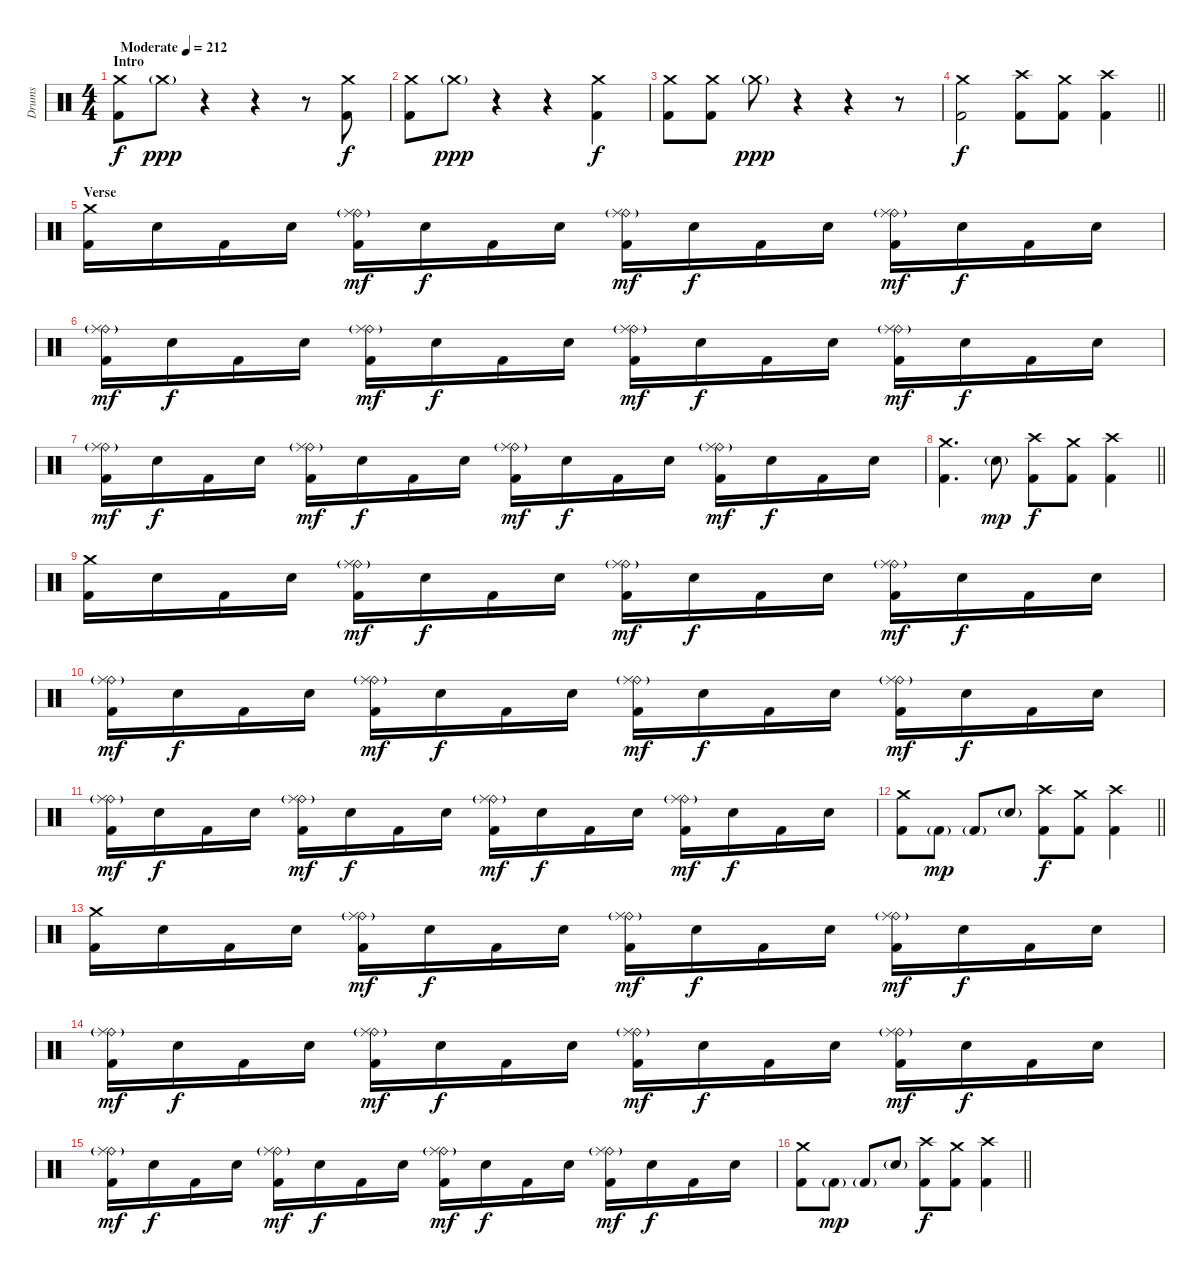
\track ("Drums" "Drums") {instrument percussion}
\staff {score}
\articulation defaults
\ts (4 4)
\section ("" "Intro")
\tempo (212 "Moderate")
\clef neutral
\ks c
("Crash medium (hit)" "Kick (hit) 2").8{dy f} "Crash medium (hit)"{g}.8{dy ppp} r.4 r.4 r.8 ("Crash medium (hit)" "Kick (hit) 2").8{dy f} |
("Crash medium (hit)" "Kick (hit) 2").8 "Crash medium (hit)"{g}.8{dy ppp} r.4 r.4 ("Crash medium (hit)" "Kick (hit) 2").4{dy f} |
("Crash medium (hit)" "Kick (hit) 2").8 ("Crash medium (hit)" "Kick (hit) 2").8 "Crash medium (hit)"{g}.8{dy ppp} r.4 r.4 r.8 |
\barLineRight lightlight
("Crash medium (hit)" "Kick (hit) 2").2{dy f} ("Crash high (hit)" "Kick (hit) 2").8 ("Crash medium (hit)" "Kick (hit) 2").8 ("Crash high (hit)" "Kick (hit) 2").4 |
\section ("" "Verse")
("Crash medium (hit)" "Kick (hit) 2").16 "Electric Snare (hit)".16 "Kick (hit) 2".16 "Electric Snare (hit)".16 ("Ride (bell)"{g} "Ride (middle)" "Kick (hit) 2").16{dy mf} "Electric Snare (hit)".16{dy f} "Kick (hit) 2".16 "Electric Snare (hit)".16 ("Ride (bell)"{g} "Ride (middle)" "Kick (hit) 2").16{dy mf} "Electric Snare (hit)".16{dy f} "Kick (hit) 2".16 "Electric Snare (hit)".16 ("Ride (bell)"{g} "Ride (middle)" "Kick (hit) 2").16{dy mf} "Electric Snare (hit)".16{dy f} "Kick (hit) 2".16 "Electric Snare (hit)".16 |
("Ride (bell)"{g} "Ride (middle)" "Kick (hit) 2").16{dy mf} "Electric Snare (hit)".16{dy f} "Kick (hit) 2".16 "Electric Snare (hit)".16 ("Ride (bell)"{g} "Ride (middle)" "Kick (hit) 2").16{dy mf} "Electric Snare (hit)".16{dy f} "Kick (hit) 2".16 "Electric Snare (hit)".16 ("Ride (bell)"{g} "Ride (middle)" "Kick (hit) 2").16{dy mf} "Electric Snare (hit)".16{dy f} "Kick (hit) 2".16 "Electric Snare (hit)".16 ("Ride (bell)"{g} "Ride (middle)" "Kick (hit) 2").16{dy mf} "Electric Snare (hit)".16{dy f} "Kick (hit) 2".16 "Electric Snare (hit)".16 |
("Ride (bell)"{g} "Ride (middle)" "Kick (hit) 2").16{dy mf} "Electric Snare (hit)".16{dy f} "Kick (hit) 2".16 "Electric Snare (hit)".16 ("Ride (bell)"{g} "Ride (middle)" "Kick (hit) 2").16{dy mf} "Electric Snare (hit)".16{dy f} "Kick (hit) 2".16 "Electric Snare (hit)".16 ("Ride (bell)"{g} "Ride (middle)" "Kick (hit) 2").16{dy mf} "Electric Snare (hit)".16{dy f} "Kick (hit) 2".16 "Electric Snare (hit)".16 ("Ride (bell)"{g} "Ride (middle)" "Kick (hit) 2").16{dy mf} "Electric Snare (hit)".16{dy f} "Kick (hit) 2".16 "Electric Snare (hit)".16 |
\barLineRight lightlight
("Crash medium (hit)" "Kick (hit) 2").4{d} "Electric Snare (hit)"{g}.8{dy mp} ("Crash high (hit)" "Kick (hit) 2").8{dy f} ("Crash medium (hit)" "Kick (hit) 2").8 ("Crash high (hit)" "Kick (hit) 2").4 |
("Crash medium (hit)" "Kick (hit) 2").16 "Electric Snare (hit)".16 "Kick (hit) 2".16 "Electric Snare (hit)".16 ("Ride (bell)"{g} "Ride (middle)" "Kick (hit) 2").16{dy mf} "Electric Snare (hit)".16{dy f} "Kick (hit) 2".16 "Electric Snare (hit)".16 ("Ride (bell)"{g} "Ride (middle)" "Kick (hit) 2").16{dy mf} "Electric Snare (hit)".16{dy f} "Kick (hit) 2".16 "Electric Snare (hit)".16 ("Ride (bell)"{g} "Ride (middle)" "Kick (hit) 2").16{dy mf} "Electric Snare (hit)".16{dy f} "Kick (hit) 2".16 "Electric Snare (hit)".16 |
("Ride (bell)"{g} "Ride (middle)" "Kick (hit) 2").16{dy mf} "Electric Snare (hit)".16{dy f} "Kick (hit) 2".16 "Electric Snare (hit)".16 ("Ride (bell)"{g} "Ride (middle)" "Kick (hit) 2").16{dy mf} "Electric Snare (hit)".16{dy f} "Kick (hit) 2".16 "Electric Snare (hit)".16 ("Ride (bell)"{g} "Ride (middle)" "Kick (hit) 2").16{dy mf} "Electric Snare (hit)".16{dy f} "Kick (hit) 2".16 "Electric Snare (hit)".16 ("Ride (bell)"{g} "Ride (middle)" "Kick (hit) 2").16{dy mf} "Electric Snare (hit)".16{dy f} "Kick (hit) 2".16 "Electric Snare (hit)".16 |
("Ride (bell)"{g} "Ride (middle)" "Kick (hit) 2").16{dy mf} "Electric Snare (hit)".16{dy f} "Kick (hit) 2".16 "Electric Snare (hit)".16 ("Ride (bell)"{g} "Ride (middle)" "Kick (hit) 2").16{dy mf} "Electric Snare (hit)".16{dy f} "Kick (hit) 2".16 "Electric Snare (hit)".16 ("Ride (bell)"{g} "Ride (middle)" "Kick (hit) 2").16{dy mf} "Electric Snare (hit)".16{dy f} "Kick (hit) 2".16 "Electric Snare (hit)".16 ("Ride (bell)"{g} "Ride (middle)" "Kick (hit) 2").16{dy mf} "Electric Snare (hit)".16{dy f} "Kick (hit) 2".16 "Electric Snare (hit)".16 |
\barLineRight lightlight
("Crash medium (hit)" "Kick (hit) 2").8 "Kick (hit) 2"{g}.8{dy mp} "Kick (hit) 2"{g}.8 "Electric Snare (hit)"{g}.8 ("Crash high (hit)" "Kick (hit) 2").8{dy f} ("Crash medium (hit)" "Kick (hit) 2").8 ("Crash high (hit)" "Kick (hit) 2").4 |
("Crash medium (hit)" "Kick (hit) 2").16 "Electric Snare (hit)".16 "Kick (hit) 2".16 "Electric Snare (hit)".16 ("Ride (bell)"{g} "Ride (middle)" "Kick (hit) 2").16{dy mf} "Electric Snare (hit)".16{dy f} "Kick (hit) 2".16 "Electric Snare (hit)".16 ("Ride (bell)"{g} "Ride (middle)" "Kick (hit) 2").16{dy mf} "Electric Snare (hit)".16{dy f} "Kick (hit) 2".16 "Electric Snare (hit)".16 ("Ride (bell)"{g} "Ride (middle)" "Kick (hit) 2").16{dy mf} "Electric Snare (hit)".16{dy f} "Kick (hit) 2".16 "Electric Snare (hit)".16 |
("Ride (bell)"{g} "Ride (middle)" "Kick (hit) 2").16{dy mf} "Electric Snare (hit)".16{dy f} "Kick (hit) 2".16 "Electric Snare (hit)".16 ("Ride (bell)"{g} "Ride (middle)" "Kick (hit) 2").16{dy mf} "Electric Snare (hit)".16{dy f} "Kick (hit) 2".16 "Electric Snare (hit)".16 ("Ride (bell)"{g} "Ride (middle)" "Kick (hit) 2").16{dy mf} "Electric Snare (hit)".16{dy f} "Kick (hit) 2".16 "Electric Snare (hit)".16 ("Ride (bell)"{g} "Ride (middle)" "Kick (hit) 2").16{dy mf} "Electric Snare (hit)".16{dy f} "Kick (hit) 2".16 "Electric Snare (hit)".16 |
("Ride (bell)"{g} "Ride (middle)" "Kick (hit) 2").16{dy mf} "Electric Snare (hit)".16{dy f} "Kick (hit) 2".16 "Electric Snare (hit)".16 ("Ride (bell)"{g} "Ride (middle)" "Kick (hit) 2").16{dy mf} "Electric Snare (hit)".16{dy f} "Kick (hit) 2".16 "Electric Snare (hit)".16 ("Ride (bell)"{g} "Ride (middle)" "Kick (hit) 2").16{dy mf} "Electric Snare (hit)".16{dy f} "Kick (hit) 2".16 "Electric Snare (hit)".16 ("Ride (bell)"{g} "Ride (middle)" "Kick (hit) 2").16{dy mf} "Electric Snare (hit)".16{dy f} "Kick (hit) 2".16 "Electric Snare (hit)".16 |
\barLineRight lightlight
("Crash medium (hit)" "Kick (hit) 2").8 "Kick (hit) 2"{g}.8{dy mp} "Kick (hit) 2"{g}.8 "Electric Snare (hit)"{g}.8 ("Crash high (hit)" "Kick (hit) 2").8{dy f} ("Crash medium (hit)" "Kick (hit) 2").8 ("Crash high (hit)" "Kick (hit) 2").4
